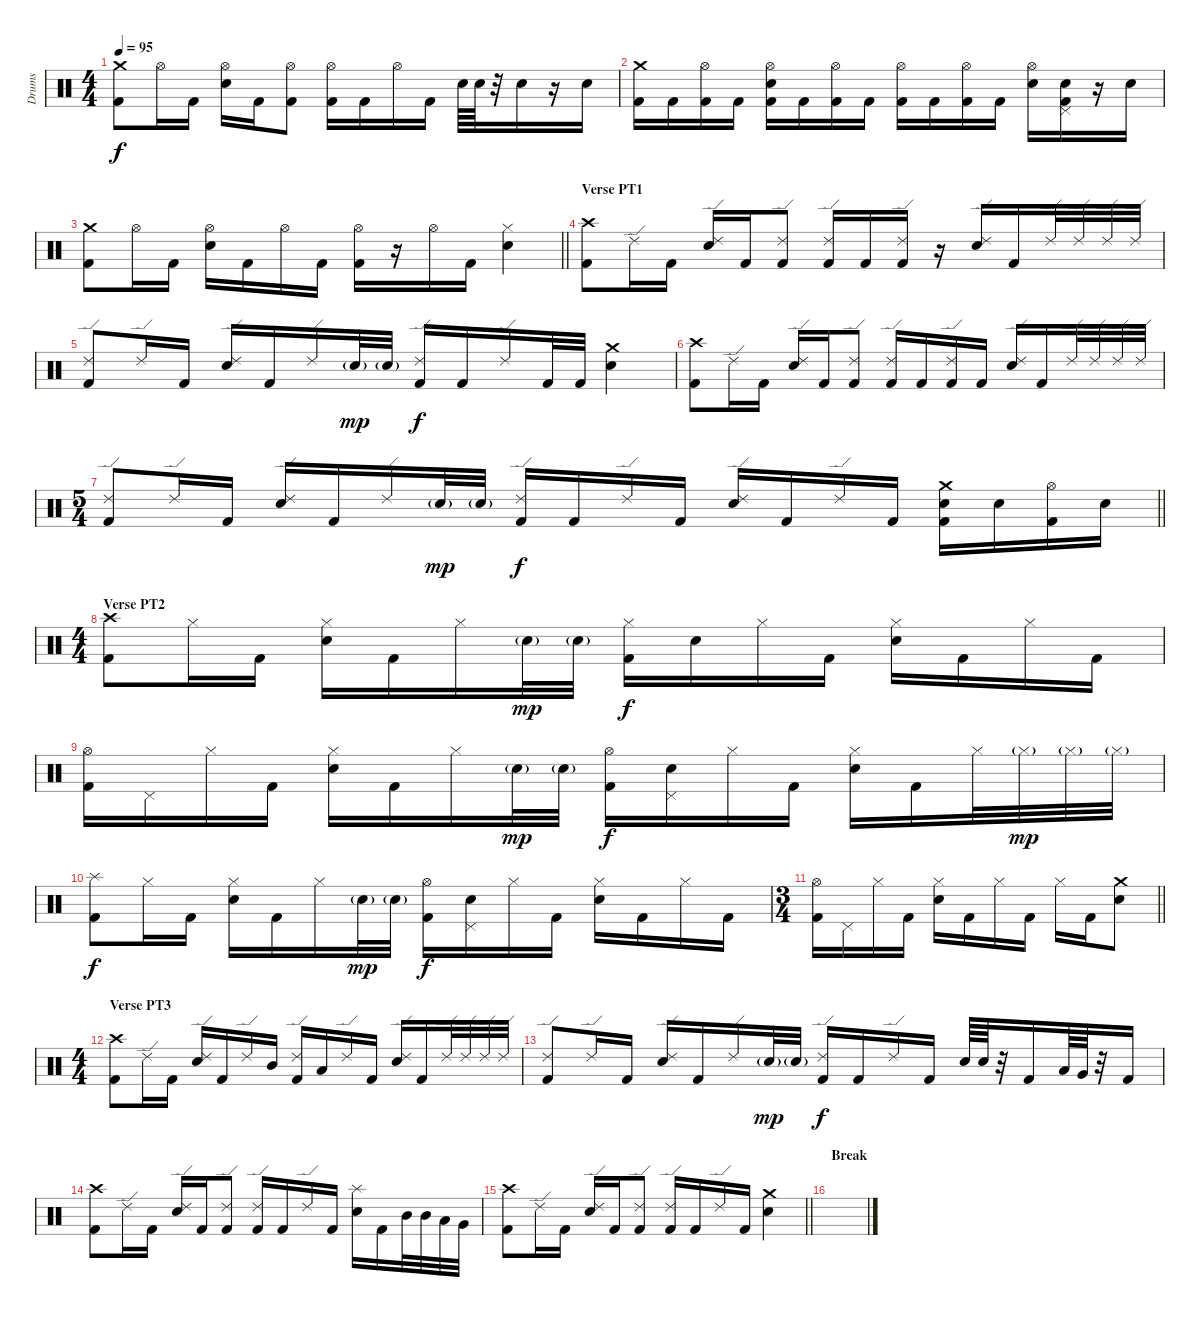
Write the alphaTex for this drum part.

\track ("Drums" "Drums") {instrument percussion}
\staff {score}
\articulation defaults
\ts (4 4)
\tempo 95
\clef neutral
\ks c
("Crash medium (hit)" "Kick (hit) 2").8{dy f} "Hi-Hat (open)".16 "Kick (hit) 2".16 ("Hi-Hat (open)" "Electric Snare (hit)").16 "Kick (hit) 2".16 ("Hi-Hat (open)" "Kick (hit) 2").8 ("Hi-Hat (open)" "Kick (hit) 2").16 "Kick (hit) 2".16 "Hi-Hat (open)".16 "Kick (hit) 2".16 "Electric Snare (hit)".64 "Electric Snare (hit)".64 r.32 "Electric Snare (hit)".16 r.16 "Electric Snare (hit)".16 |
("Crash medium (hit)" "Kick (hit) 2").16 "Kick (hit) 2".16 ("Hi-Hat (open)" "Kick (hit) 2").16 "Kick (hit) 2".16 ("Hi-Hat (open)" "Electric Snare (hit)" "Kick (hit) 2").16 "Kick (hit) 2".16 ("Hi-Hat (open)" "Kick (hit) 2").16 "Kick (hit) 2".16 ("Hi-Hat (open)" "Kick (hit) 2").16 "Kick (hit) 2".16 ("Hi-Hat (open)" "Kick (hit) 2").16 "Kick (hit) 2".16 ("Hi-Hat (open)" "Electric Snare (hit)").16 ("Electric Snare (hit)" "Pedal Hi-Hat (hit)" "Kick (hit) 2").16 r.16 "Electric Snare (hit)".16 |
\barLineRight lightlight
("Crash medium (hit)" "Kick (hit) 2").8 "Hi-Hat (open)".16 "Kick (hit) 2".16 ("Hi-Hat (open)" "Electric Snare (hit)").16 "Kick (hit) 2".16 "Hi-Hat (open)".16 "Kick (hit) 2".16 ("Hi-Hat (open)" "Kick (hit) 2").16 r.16 "Hi-Hat (open)".16 "Kick (hit) 2".16 ("Hi-Hat (closed)" "Electric Snare (hit)").4 |
\section ("" "Verse PT1")
("Crash high (hit)" "Kick (hit) 2").8 "Ride (edge) 2".16 "Kick (hit) 2".16 ("Ride (edge) 2" "Electric Snare (hit)").16 "Kick (hit) 2".16 ("Ride (edge) 2" "Kick (hit) 2").8 ("Ride (edge) 2" "Kick (hit) 2").16 "Kick (hit) 2".16 ("Ride (edge) 2" "Kick (hit) 2").16 r.16 ("Ride (edge) 2" "Electric Snare (hit)").16 "Kick (hit) 2".16 "Ride (edge) 2".32 "Ride (edge) 2".32 "Ride (edge) 2".32 "Ride (edge) 2".32 |
("Ride (edge) 2" "Kick (hit) 2").8 "Ride (edge) 2".16 "Kick (hit) 2".16 ("Ride (edge) 2" "Electric Snare (hit)").16 "Kick (hit) 2".16 "Ride (edge) 2".16 "Electric Snare (hit)"{g}.32{dy mp} "Electric Snare (hit)"{g}.32 ("Ride (edge) 2" "Kick (hit) 2").16{dy f} "Kick (hit) 2".16 "Ride (edge) 2".16 "Kick (hit) 2".32 "Kick (hit) 2".32 ("Crash medium (hit)" "Electric Snare (hit)").4 |
("Crash high (hit)" "Kick (hit) 2").8 "Ride (edge) 2".16 "Kick (hit) 2".16 ("Ride (edge) 2" "Electric Snare (hit)").16 "Kick (hit) 2".16 ("Ride (edge) 2" "Kick (hit) 2").8 ("Ride (edge) 2" "Kick (hit) 2").16 "Kick (hit) 2".16 ("Ride (edge) 2" "Kick (hit) 2").16 "Kick (hit) 2".16 ("Ride (edge) 2" "Electric Snare (hit)").16 "Kick (hit) 2".16 "Ride (edge) 2".32 "Ride (edge) 2".32 "Ride (edge) 2".32 "Ride (edge) 2".32 |
\ts (5 4)
\barLineRight lightlight
("Ride (edge) 2" "Kick (hit) 2").8 "Ride (edge) 2".16 "Kick (hit) 2".16 ("Ride (edge) 2" "Electric Snare (hit)").16 "Kick (hit) 2".16 "Ride (edge) 2".16 "Electric Snare (hit)"{g}.32{dy mp} "Electric Snare (hit)"{g}.32 ("Ride (edge) 2" "Kick (hit) 2").16{dy f} "Kick (hit) 2".16 "Ride (edge) 2".16 "Kick (hit) 2".16 ("Ride (edge) 2" "Electric Snare (hit)").16 "Kick (hit) 2".16 "Ride (edge) 2".16 "Kick (hit) 2".16 ("Crash medium (hit)" "Electric Snare (hit)" "Kick (hit) 2").16 "Electric Snare (hit)".16 ("Hi-Hat (open)" "Kick (hit) 2").16 "Electric Snare (hit)".16 |
\ts (4 4)
\section ("" "Verse PT2")
("Crash high (hit)" "Kick (hit) 2").8 "Hi-Hat (closed)".16 "Kick (hit) 2".16 ("Hi-Hat (closed)" "Electric Snare (hit)").16 "Kick (hit) 2".16 "Hi-Hat (closed)".16 "Electric Snare (hit)"{g}.32{dy mp} "Electric Snare (hit)"{g}.32 ("Hi-Hat (closed)" "Kick (hit) 2").16{dy f} "Electric Snare (hit)".16 "Hi-Hat (closed)".16 "Kick (hit) 2".16 ("Hi-Hat (closed)" "Electric Snare (hit)").16 "Kick (hit) 2".16 "Hi-Hat (closed)".16 "Kick (hit) 2".16 |
("Hi-Hat (open)" "Kick (hit) 2").16 "Pedal Hi-Hat (hit)".16 "Hi-Hat (closed)".16 "Kick (hit) 2".16 ("Hi-Hat (closed)" "Electric Snare (hit)").16 "Kick (hit) 2".16 "Hi-Hat (closed)".16 "Electric Snare (hit)"{g}.32{dy mp} "Electric Snare (hit)"{g}.32 ("Hi-Hat (open)" "Kick (hit) 2").16{dy f} ("Electric Snare (hit)" "Pedal Hi-Hat (hit)").16 "Hi-Hat (closed)".16 "Kick (hit) 2".16 ("Hi-Hat (closed)" "Electric Snare (hit)").16 "Kick (hit) 2".16 "Hi-Hat (closed)".32 "Hi-Hat (closed)"{g}.32{dy mp} "Hi-Hat (closed)"{g}.32 "Hi-Hat (closed)"{g}.32 |
("Splash (hit)" "Kick (hit) 2").8{dy f} "Hi-Hat (closed)".16 "Kick (hit) 2".16 ("Hi-Hat (closed)" "Electric Snare (hit)").16 "Kick (hit) 2".16 "Hi-Hat (closed)".16 "Electric Snare (hit)"{g}.32{dy mp} "Electric Snare (hit)"{g}.32 ("Hi-Hat (open)" "Kick (hit) 2").16{dy f} ("Electric Snare (hit)" "Pedal Hi-Hat (hit)").16 "Hi-Hat (closed)".16 "Kick (hit) 2".16 ("Hi-Hat (closed)" "Electric Snare (hit)").16 "Kick (hit) 2".16 "Hi-Hat (closed)".16 "Kick (hit) 2".16 |
\ts (3 4)
\barLineRight lightlight
("Hi-Hat (open)" "Kick (hit) 2").16 "Pedal Hi-Hat (hit)".16 "Hi-Hat (closed)".16 "Kick (hit) 2".16 ("Hi-Hat (closed)" "Electric Snare (hit)").16 "Kick (hit) 2".16 "Hi-Hat (closed)".16 "Kick (hit) 2".16 "Hi-Hat (closed)".16 "Kick (hit) 2".16 ("Crash medium (hit)" "Electric Snare (hit)").8 |
\ts (4 4)
\section ("" "Verse PT3")
("Crash high (hit)" "Kick (hit) 2").8 "Ride (edge) 2".16 "Kick (hit) 2".16 ("Ride (edge) 2" "Electric Snare (hit)").16 "Kick (hit) 2".16 "Ride (edge) 2".16 "Mid Tom (hit)".16 ("Ride (edge) 2" "Kick (hit) 2").16 "Low Tom (hit)".16 "Ride (edge) 2".16 "Kick (hit) 2".16 ("Ride (edge) 2" "Electric Snare (hit)").16 "Kick (hit) 2".16 "Ride (edge) 2".32 "Ride (edge) 2".32 "Ride (edge) 2".32 "Ride (edge) 2".32 |
("Ride (edge) 2" "Kick (hit) 2").8 "Ride (edge) 2".16 "Kick (hit) 2".16 ("Ride (edge) 2" "Electric Snare (hit)").16 "Kick (hit) 2".16 "Ride (edge) 2".16 "Electric Snare (hit)"{g}.32{dy mp} "Electric Snare (hit)"{g}.32 ("Ride (edge) 2" "Kick (hit) 2").16{dy f} "Kick (hit) 2".16 "Ride (edge) 2".16 "Kick (hit) 2".16 "Electric Snare (hit)".64 "Electric Snare (hit)".64 r.32 "Kick (hit) 2".16 "Low Floor Tom (hit)".64 "Very Low Tom (hit)".64 r.32 "Kick (hit) 2".16 |
("Crash high (hit)" "Kick (hit) 2").8 "Ride (edge) 2".16 "Kick (hit) 2".16 ("Ride (edge) 2" "Electric Snare (hit)").16 "Kick (hit) 2".16 ("Ride (edge) 2" "Kick (hit) 2").8 ("Ride (edge) 2" "Kick (hit) 2").16 "Kick (hit) 2".16 "Ride (edge) 2".16 "Kick (hit) 2".16 ("Splash (hit)" "Electric Snare (hit)").16 "Kick (hit) 2".16 "Mid Tom (hit)".32 "Mid Tom (hit)".32 "Low Tom (hit)".32 "Very Low Tom (hit)".32 |
\barLineRight lightlight
("Crash high (hit)" "Kick (hit) 2").8 "Ride (edge) 2".16 "Kick (hit) 2".16 ("Ride (edge) 2" "Electric Snare (hit)").16 "Kick (hit) 2".16 ("Ride (edge) 2" "Kick (hit) 2").8 ("Ride (edge) 2" "Kick (hit) 2").16 "Kick (hit) 2".16 "Ride (edge) 2".16 "Kick (hit) 2".16 ("Crash medium (hit)" "Electric Snare (hit)").4 |
\section ("" "Break")
